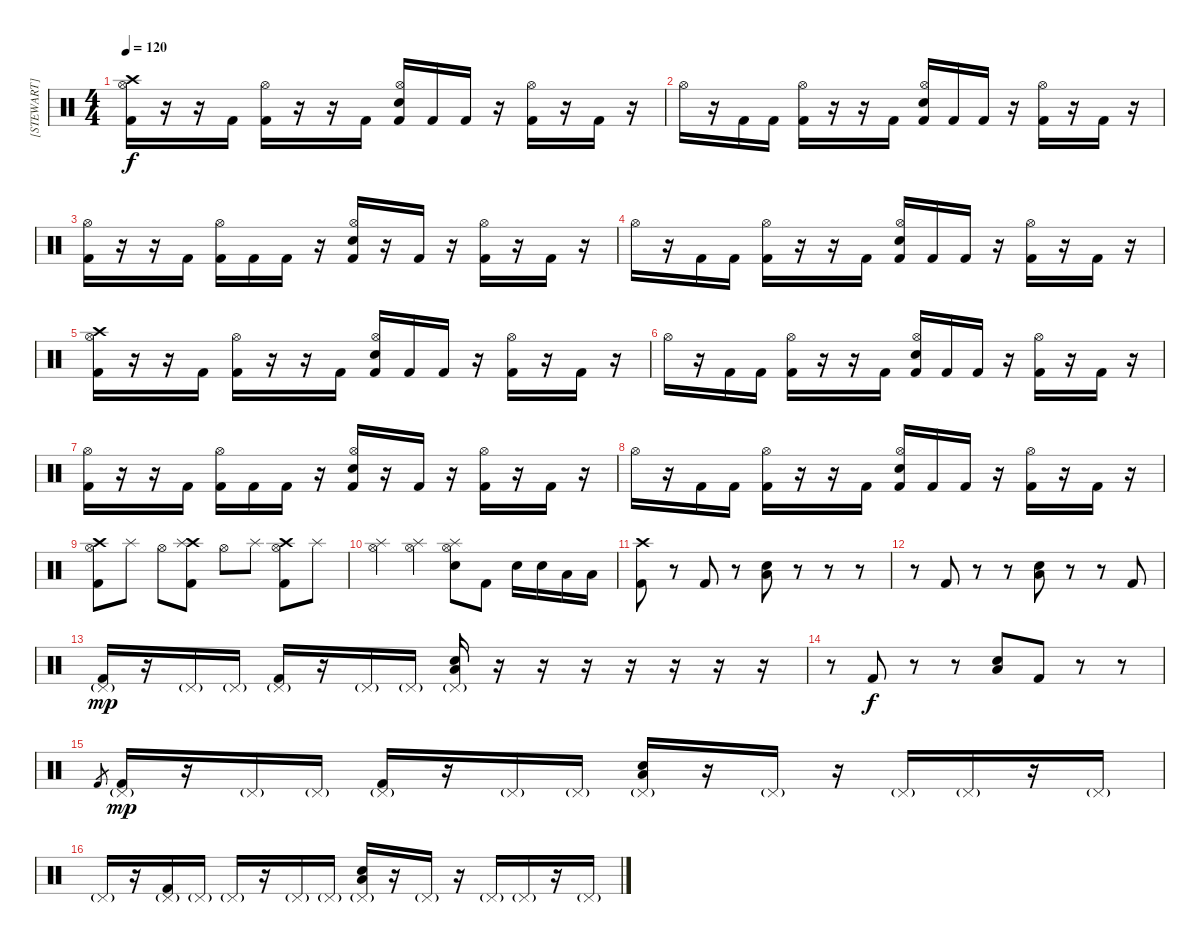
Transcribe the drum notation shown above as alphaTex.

\track ("[STEWART]" "[STEWART]") {instrument percussion}
\staff {score}
\articulation defaults
\ts (4 4)
\tempo 120
\clef neutral
\ks c
("Crash high (hit)" "Kick (hit) 2" "Hi-Hat (open)").16{dy f} r.16 r.16 "Kick (hit) 2".16 ("Kick (hit) 2" "Hi-Hat (open)").16 r.16 r.16 "Kick (hit) 2".16 ("Electric Snare (hit)" "Kick (hit) 2" "Hi-Hat (open)").16 "Kick (hit) 2".16 "Kick (hit) 2".16 r.16 ("Kick (hit) 2" "Hi-Hat (open)").16 r.16 "Kick (hit) 2".16 r.16 |
"Hi-Hat (open)".16 r.16 "Kick (hit) 2".16 "Kick (hit) 2".16 ("Kick (hit) 2" "Hi-Hat (open)").16 r.16 r.16 "Kick (hit) 2".16 ("Electric Snare (hit)" "Kick (hit) 2" "Hi-Hat (open)").16 "Kick (hit) 2".16 "Kick (hit) 2".16 r.16 ("Kick (hit) 2" "Hi-Hat (open)").16 r.16 "Kick (hit) 2".16 r.16 |
("Kick (hit) 2" "Hi-Hat (open)").16 r.16 r.16 "Kick (hit) 2".16 ("Kick (hit) 2" "Hi-Hat (open)").16 "Kick (hit) 2".16 "Kick (hit) 2".16 r.16 ("Electric Snare (hit)" "Kick (hit) 2" "Hi-Hat (open)").16 r.16 "Kick (hit) 2".16 r.16 ("Kick (hit) 2" "Hi-Hat (open)").16 r.16 "Kick (hit) 2".16 r.16 |
"Hi-Hat (open)".16 r.16 "Kick (hit) 2".16 "Kick (hit) 2".16 ("Kick (hit) 2" "Hi-Hat (open)").16 r.16 r.16 "Kick (hit) 2".16 ("Electric Snare (hit)" "Kick (hit) 2" "Hi-Hat (open)").16 "Kick (hit) 2".16 "Kick (hit) 2".16 r.16 ("Kick (hit) 2" "Hi-Hat (open)").16 r.16 "Kick (hit) 2".16 r.16 |
("Crash high (hit)" "Kick (hit) 2" "Hi-Hat (open)").16 r.16 r.16 "Kick (hit) 2".16 ("Kick (hit) 2" "Hi-Hat (open)").16 r.16 r.16 "Kick (hit) 2".16 ("Electric Snare (hit)" "Kick (hit) 2" "Hi-Hat (open)").16 "Kick (hit) 2".16 "Kick (hit) 2".16 r.16 ("Kick (hit) 2" "Hi-Hat (open)").16 r.16 "Kick (hit) 2".16 r.16 |
"Hi-Hat (open)".16 r.16 "Kick (hit) 2".16 "Kick (hit) 2".16 ("Kick (hit) 2" "Hi-Hat (open)").16 r.16 r.16 "Kick (hit) 2".16 ("Electric Snare (hit)" "Kick (hit) 2" "Hi-Hat (open)").16 "Kick (hit) 2".16 "Kick (hit) 2".16 r.16 ("Kick (hit) 2" "Hi-Hat (open)").16 r.16 "Kick (hit) 2".16 r.16 |
("Kick (hit) 2" "Hi-Hat (open)").16 r.16 r.16 "Kick (hit) 2".16 ("Kick (hit) 2" "Hi-Hat (open)").16 "Kick (hit) 2".16 "Kick (hit) 2".16 r.16 ("Electric Snare (hit)" "Kick (hit) 2" "Hi-Hat (open)").16 r.16 "Kick (hit) 2".16 r.16 ("Kick (hit) 2" "Hi-Hat (open)").16 r.16 "Kick (hit) 2".16 r.16 |
"Hi-Hat (open)".16 r.16 "Kick (hit) 2".16 "Kick (hit) 2".16 ("Kick (hit) 2" "Hi-Hat (open)").16 r.16 r.16 "Kick (hit) 2".16 ("Electric Snare (hit)" "Kick (hit) 2" "Hi-Hat (open)").16 "Kick (hit) 2".16 "Kick (hit) 2".16 r.16 ("Kick (hit) 2" "Hi-Hat (open)").16 r.16 "Kick (hit) 2".16 r.16 |
("Crash high (hit)" "Kick (hit) 2" "Hi-Hat (open)").8 "Splash (hit)".8 "Hi-Hat (open)".8 ("Crash high (hit)" "Kick (hit) 2" "Splash (hit)").8 "Hi-Hat (open)".8 "Splash (hit)".8 ("Crash high (hit)" "Kick (hit) 2" "Hi-Hat (open)").8 "Splash (hit)".8 |
("Splash (hit)" "Hi-Hat (open)").4 ("Splash (hit)" "Hi-Hat (open)").4 ("Electric Snare (hit)" "Splash (hit)" "Hi-Hat (open)").8 "Kick (hit) 2".8 "Electric Snare (hit)".16 "Electric Snare (hit)".16 "Low Floor Tom (hit)".16 "Low Floor Tom (hit)".16 |
("Crash high (hit)" "Kick (hit) 2").8 r.8 "Kick (hit) 2".8 r.8 ("Low Tom (hit)" "Electric Snare (hit)").8 r.8 r.8 r.8 |
r.8 "Kick (hit) 2".8 r.8 r.8 ("Low Tom (hit)" "Electric Snare (hit)").8 r.8 r.8 "Kick (hit) 2".8 |
("Pedal Hi-Hat (hit)"{g} "Kick (hit) 2").16{dy mp} r.16 "Pedal Hi-Hat (hit)"{g}.16 "Pedal Hi-Hat (hit)"{g}.16 ("Pedal Hi-Hat (hit)"{g} "Kick (hit) 2").16 r.16 "Pedal Hi-Hat (hit)"{g}.16 "Pedal Hi-Hat (hit)"{g}.16 ("Pedal Hi-Hat (hit)"{g} "Low Tom (hit)" "Electric Snare (hit)").16 r.16 r.16 r.16 r.16 r.16 r.16 r.16 |
r.8 "Kick (hit) 2".8{dy f} r.8 r.8 ("Low Tom (hit)" "Electric Snare (hit)").8 "Kick (hit) 2".8 r.8 r.8 |
"Kick (hit) 2".8{gr} ("Pedal Hi-Hat (hit)"{g} "Kick (hit) 2").16{dy mp} r.16 "Pedal Hi-Hat (hit)"{g}.16 "Pedal Hi-Hat (hit)"{g}.16 ("Pedal Hi-Hat (hit)"{g} "Kick (hit) 2").16 r.16 "Pedal Hi-Hat (hit)"{g}.16 "Pedal Hi-Hat (hit)"{g}.16 ("Pedal Hi-Hat (hit)"{g} "Low Tom (hit)" "Electric Snare (hit)").16 r.16 "Pedal Hi-Hat (hit)"{g}.16 r.16 "Pedal Hi-Hat (hit)"{g}.16 "Pedal Hi-Hat (hit)"{g}.16 r.16 "Pedal Hi-Hat (hit)"{g}.16 |
"Pedal Hi-Hat (hit)"{g}.16 r.16 ("Pedal Hi-Hat (hit)"{g} "Kick (hit) 2").16 "Pedal Hi-Hat (hit)"{g}.16 "Pedal Hi-Hat (hit)"{g}.16 r.16 "Pedal Hi-Hat (hit)"{g}.16 "Pedal Hi-Hat (hit)"{g}.16 ("Pedal Hi-Hat (hit)"{g} "Low Tom (hit)" "Electric Snare (hit)").16 r.16 "Pedal Hi-Hat (hit)"{g}.16 r.16 "Pedal Hi-Hat (hit)"{g}.16 "Pedal Hi-Hat (hit)"{g}.16 r.16 "Pedal Hi-Hat (hit)"{g}.16
